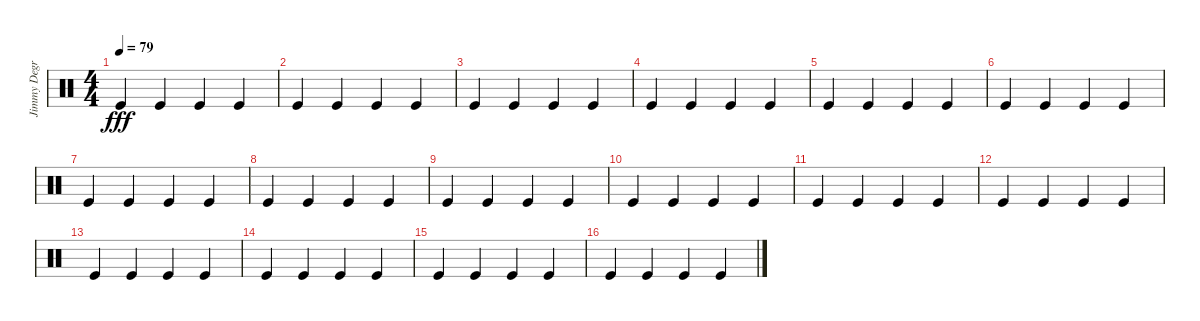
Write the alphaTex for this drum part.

\track ("Jimmy Degrasso" "Jimmy Degr") {instrument percussion}
\staff {score}
\articulation defaults
\ts (4 4)
\tempo 79
\clef neutral
\ks c "Kick (hit)".4{dy fff} "Kick (hit)".4 "Kick (hit)".4 "Kick (hit)".4
|
"Kick (hit)".4 "Kick (hit)".4 "Kick (hit)".4 "Kick (hit)".4 |
"Kick (hit)".4 "Kick (hit)".4 "Kick (hit)".4 "Kick (hit)".4 |
"Kick (hit)".4 "Kick (hit)".4 "Kick (hit)".4 "Kick (hit)".4 |
"Kick (hit)".4 "Kick (hit)".4 "Kick (hit)".4 "Kick (hit)".4 |
"Kick (hit)".4 "Kick (hit)".4 "Kick (hit)".4 "Kick (hit)".4 |
"Kick (hit)".4 "Kick (hit)".4 "Kick (hit)".4 "Kick (hit)".4 |
"Kick (hit)".4 "Kick (hit)".4 "Kick (hit)".4 "Kick (hit)".4 |
"Kick (hit)".4 "Kick (hit)".4 "Kick (hit)".4 "Kick (hit)".4 |
"Kick (hit)".4 "Kick (hit)".4 "Kick (hit)".4 "Kick (hit)".4 |
"Kick (hit)".4 "Kick (hit)".4 "Kick (hit)".4 "Kick (hit)".4 |
"Kick (hit)".4 "Kick (hit)".4 "Kick (hit)".4 "Kick (hit)".4 |
"Kick (hit)".4 "Kick (hit)".4 "Kick (hit)".4 "Kick (hit)".4 |
"Kick (hit)".4 "Kick (hit)".4 "Kick (hit)".4 "Kick (hit)".4 |
"Kick (hit)".4 "Kick (hit)".4 "Kick (hit)".4 "Kick (hit)".4 |
"Kick (hit)".4 "Kick (hit)".4 "Kick (hit)".4 "Kick (hit)".4
